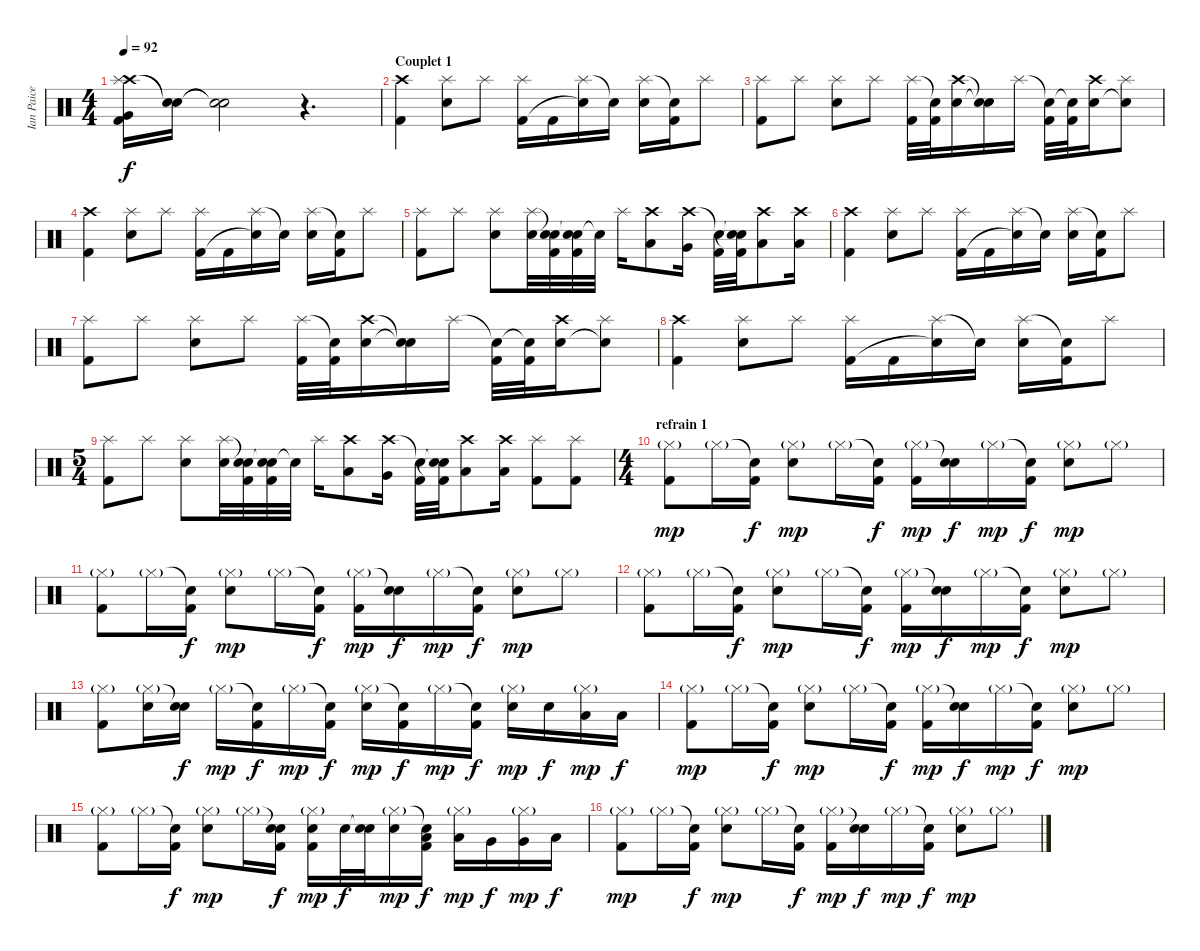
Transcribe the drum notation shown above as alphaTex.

\track ("Ian Paice" "Ian Paice") {instrument percussion}
\staff {score}
\articulation defaults
\ts (4 4)
\tempo 92
\clef neutral
\ks c
("Crash high (hit)" "Splash (hit)" "Very Low Tom (hit)" "Kick (hit) 2").16{dy f} ("Snare (hit)"{t} "Snare (hit)"{t}).16 ("Snare (hit)"{t} "Snare (hit)"{t}).2 r.4{d} |
\section ("" "Couplet 1")
("Crash high (hit)" "Kick (hit) 2").4 ("Splash (hit)" "Snare (hit) 2").8 "Splash (hit)".8 ("Splash (hit)" "Kick (hit) 2").16 "Kick (hit) 2".16 ("Splash (hit)" "Snare (hit)"{t}).16 "Snare (hit)"{t}.16 ("Splash (hit)" "Snare (hit) 2").16 ("Snare (hit)"{t} "Kick (hit) 2").16 "Splash (hit)".8 |
("Splash (hit)" "Kick (hit) 2").8 "Splash (hit)".8 ("Splash (hit)" "Snare (hit) 2").8 "Splash (hit)".8 ("Splash (hit)" "Kick (hit) 2").32 ("Snare (hit)"{t} "Kick (hit) 2").32 ("Crash high (hit)" "Snare (hit) 2").16 ("Snare (hit)"{t} "Snare (hit)"{t}).16 "Splash (hit)".16 ("Snare (hit)"{t} "Kick (hit) 2").32 ("Snare (hit)"{t} "Kick (hit) 2").32 ("Crash high (hit)" "Snare (hit) 2").16 ("Splash (hit)" "Snare (hit)"{t}).8 |
("Crash high (hit)" "Kick (hit) 2").4 ("Splash (hit)" "Snare (hit) 2").8 "Splash (hit)".8 ("Splash (hit)" "Kick (hit) 2").16 "Kick (hit) 2".16 ("Splash (hit)" "Snare (hit)"{t}).16 "Snare (hit)"{t}.16 ("Splash (hit)" "Snare (hit) 2").16 ("Snare (hit)"{t} "Kick (hit) 2").16 "Splash (hit)".8 |
("Splash (hit)" "Kick (hit) 2").8 "Splash (hit)".8 ("Splash (hit)" "Snare (hit) 2").8 ("Splash (hit)" "Snare (hit) 2").32 ("Snare (hit)"{t} "Snare (hit) 2" "Kick (hit) 2").32 ("Snare (hit)"{t} "Snare (hit) 2" "Kick (hit) 2").32 "Snare (hit)"{t}.32 "Splash (hit)".16 ("Crash high (hit)" "Low Floor Tom (hit)").8 ("Crash high (hit)" "Very Low Tom (hit)").16 ("Snare (hit)"{t} "Kick (hit) 2").32 ("Snare (hit)"{t} "Snare (hit)"{t} "Kick (hit) 2").32 ("Crash high (hit)" "Low Tom (hit)").8 ("Crash high (hit)" "Low Tom (hit)").16 |
("Crash high (hit)" "Kick (hit) 2").4 ("Splash (hit)" "Snare (hit) 2").8 "Splash (hit)".8 ("Splash (hit)" "Kick (hit) 2").16 "Kick (hit) 2".16 ("Splash (hit)" "Snare (hit)"{t}).16 "Snare (hit)"{t}.16 ("Splash (hit)" "Snare (hit) 2").16 ("Snare (hit)"{t} "Kick (hit) 2").16 "Splash (hit)".8 |
("Splash (hit)" "Kick (hit) 2").8 "Splash (hit)".8 ("Splash (hit)" "Snare (hit) 2").8 "Splash (hit)".8 ("Splash (hit)" "Kick (hit) 2").32 ("Snare (hit)"{t} "Kick (hit) 2").32 ("Crash high (hit)" "Snare (hit) 2").16 ("Snare (hit)"{t} "Snare (hit)"{t}).16 "Splash (hit)".16 ("Snare (hit)"{t} "Kick (hit) 2").32 ("Snare (hit)"{t} "Kick (hit) 2").32 ("Crash high (hit)" "Snare (hit) 2").16 ("Splash (hit)" "Snare (hit)"{t}).8 |
("Crash high (hit)" "Kick (hit) 2").4 ("Splash (hit)" "Snare (hit) 2").8 "Splash (hit)".8 ("Splash (hit)" "Kick (hit) 2").16 "Kick (hit) 2".16 ("Splash (hit)" "Snare (hit)"{t}).16 "Snare (hit)"{t}.16 ("Splash (hit)" "Snare (hit) 2").16 ("Snare (hit)"{t} "Kick (hit) 2").16 "Splash (hit)".8 |
\ts (5 4)
("Splash (hit)" "Kick (hit) 2").8 "Splash (hit)".8 ("Splash (hit)" "Snare (hit) 2").8 ("Splash (hit)" "Snare (hit) 2").32 ("Snare (hit)"{t} "Snare (hit) 2" "Kick (hit) 2").32 ("Snare (hit)"{t} "Snare (hit) 2" "Kick (hit) 2").32 "Snare (hit)"{t}.32 "Splash (hit)".16 ("Crash high (hit)" "Low Floor Tom (hit)").8 ("Crash high (hit)" "Very Low Tom (hit)").16 ("Snare (hit)"{t} "Kick (hit) 2").32 ("Snare (hit)"{t} "Snare (hit)"{t} "Kick (hit) 2").32 ("Crash high (hit)" "Low Tom (hit)").8 ("Crash high (hit)" "Low Tom (hit)").16 ("Splash (hit)" "Kick (hit) 2").8 ("Splash (hit)" "Kick (hit) 2").8 |
\ts (4 4)
\section ("" "refrain 1")
("Hi-Hat (closed)"{g} "Kick (hit) 2").8{dy mp} "Hi-Hat (closed)"{g}.16 ("Snare (hit)"{t} "Kick (hit) 2").16{dy f} ("Hi-Hat (closed)"{g} "Snare (hit) 2").8{dy mp} "Hi-Hat (closed)"{g}.16 ("Snare (hit)"{t} "Kick (hit) 2").16{dy f} ("Hi-Hat (closed)"{g} "Kick (hit) 2").16{dy mp} ("Snare (hit)"{t} "Snare (hit) 2").16{dy f} "Hi-Hat (closed)"{g}.16{dy mp} ("Snare (hit)"{t} "Kick (hit) 2").16{dy f} ("Hi-Hat (closed)"{g} "Snare (hit) 2").8{dy mp} "Hi-Hat (closed)"{g}.8 |
("Hi-Hat (closed)"{g} "Kick (hit) 2").8 "Hi-Hat (closed)"{g}.16 ("Snare (hit)"{t} "Kick (hit) 2").16{dy f} ("Hi-Hat (closed)"{g} "Snare (hit) 2").8{dy mp} "Hi-Hat (closed)"{g}.16 ("Snare (hit)"{t} "Kick (hit) 2").16{dy f} ("Hi-Hat (closed)"{g} "Kick (hit) 2").16{dy mp} ("Snare (hit)"{t} "Snare (hit) 2").16{dy f} "Hi-Hat (closed)"{g}.16{dy mp} ("Snare (hit)"{t} "Kick (hit) 2").16{dy f} ("Hi-Hat (closed)"{g} "Snare (hit) 2").8{dy mp} "Hi-Hat (closed)"{g}.8 |
("Hi-Hat (closed)"{g} "Kick (hit) 2").8 "Hi-Hat (closed)"{g}.16 ("Snare (hit)"{t} "Kick (hit) 2").16{dy f} ("Hi-Hat (closed)"{g} "Snare (hit) 2").8{dy mp} "Hi-Hat (closed)"{g}.16 ("Snare (hit)"{t} "Kick (hit) 2").16{dy f} ("Hi-Hat (closed)"{g} "Kick (hit) 2").16{dy mp} ("Snare (hit)"{t} "Snare (hit) 2").16{dy f} "Hi-Hat (closed)"{g}.16{dy mp} ("Snare (hit)"{t} "Kick (hit) 2").16{dy f} ("Hi-Hat (closed)"{g} "Snare (hit) 2").8{dy mp} "Hi-Hat (closed)"{g}.8 |
("Hi-Hat (closed)"{g} "Kick (hit) 2").8 ("Hi-Hat (closed)"{g} "Snare (hit) 2").16 ("Snare (hit)"{t} "Snare (hit) 2").16{dy f} "Hi-Hat (closed)"{g}.16{dy mp} ("Snare (hit)"{t} "Kick (hit) 2").16{dy f} "Hi-Hat (closed)"{g}.16{dy mp} ("Snare (hit)"{t} "Kick (hit) 2").16{dy f} ("Hi-Hat (closed)"{g} "Snare (hit) 2").16{dy mp} ("Snare (hit)"{t} "Kick (hit) 2").16{dy f} "Hi-Hat (closed)"{g}.16{dy mp} ("Snare (hit)"{t} "Kick (hit) 2").16{dy f} ("Hi-Hat (closed)"{g} "Snare (hit) 2").16{dy mp} "Snare (hit) 2".16{dy f} ("Hi-Hat (closed)"{g} "Low Tom (hit)").16{dy mp} "Low Tom (hit)".16{dy f} |
("Hi-Hat (closed)"{g} "Kick (hit) 2").8{dy mp} "Hi-Hat (closed)"{g}.16 ("Snare (hit)"{t} "Kick (hit) 2").16{dy f} ("Hi-Hat (closed)"{g} "Snare (hit) 2").8{dy mp} "Hi-Hat (closed)"{g}.16 ("Snare (hit)"{t} "Kick (hit) 2").16{dy f} ("Hi-Hat (closed)"{g} "Kick (hit) 2").16{dy mp} ("Snare (hit)"{t} "Snare (hit) 2").16{dy f} "Hi-Hat (closed)"{g}.16{dy mp} ("Snare (hit)"{t} "Kick (hit) 2").16{dy f} ("Hi-Hat (closed)"{g} "Snare (hit) 2").8{dy mp} "Hi-Hat (closed)"{g}.8 |
("Hi-Hat (closed)"{g} "Kick (hit) 2").8 "Hi-Hat (closed)"{g}.16 ("Snare (hit)"{t} "Kick (hit) 2").16{dy f} ("Hi-Hat (closed)"{g} "Snare (hit) 2").8{dy mp} "Hi-Hat (closed)"{g}.16 ("Snare (hit)"{t} "Snare (hit) 2" "Kick (hit) 2").16{dy f} ("Hi-Hat (closed)"{g} "Snare (hit) 2" "Kick (hit) 2").16{dy mp} "Snare (hit) 2".32{dy f} ("Snare (hit)"{t} "Snare (hit) 2").32 ("Hi-Hat (closed)"{g} "Snare (hit) 2").16{dy mp} ("Snare (hit)"{t} "Low Tom (hit)" "Kick (hit) 2").16{dy f} ("Hi-Hat (closed)"{g} "Low Tom (hit)").16{dy mp} "Very Low Tom (hit)".16{dy f} ("Hi-Hat (closed)"{g} "Very Low Tom (hit)").16{dy mp} "Low Floor Tom (hit)".16{dy f} |
("Hi-Hat (closed)"{g} "Kick (hit) 2").8{dy mp} "Hi-Hat (closed)"{g}.16 ("Snare (hit)"{t} "Kick (hit) 2").16{dy f} ("Hi-Hat (closed)"{g} "Snare (hit) 2").8{dy mp} "Hi-Hat (closed)"{g}.16 ("Snare (hit)"{t} "Kick (hit) 2").16{dy f} ("Hi-Hat (closed)"{g} "Kick (hit) 2").16{dy mp} ("Snare (hit)"{t} "Snare (hit) 2").16{dy f} "Hi-Hat (closed)"{g}.16{dy mp} ("Snare (hit)"{t} "Kick (hit) 2").16{dy f} ("Hi-Hat (closed)"{g} "Snare (hit) 2").8{dy mp} "Hi-Hat (closed)"{g}.8
